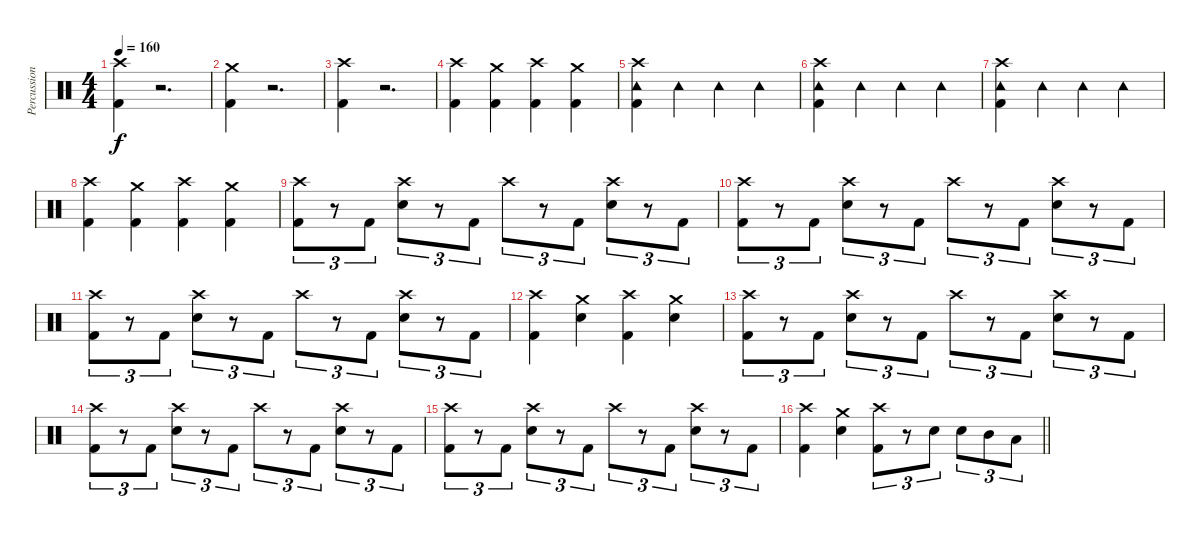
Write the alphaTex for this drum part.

\track ("Percussion" "Percussion") {instrument percussion}
\staff {score}
\articulation defaults
\ts (4 4)
\tempo 160
\clef neutral
\ks c
("Crash high (hit)" "Kick (hit) 2").4{dy f} r.2{d} |
("Crash medium (hit)" "Kick (hit) 2").4 r.2{d} |
("Crash high (hit)" "Kick (hit) 2").4 r.2{d} |
("Crash high (hit)" "Kick (hit) 2").4 ("Crash medium (hit)" "Kick (hit) 2").4 ("Crash high (hit)" "Kick (hit) 2").4 ("Crash medium (hit)" "Kick (hit) 2").4 |
("Crash high (hit)" "Tambourine (hit)" "Kick (hit) 2").4 "Tambourine (hit)".4 "Tambourine (hit)".4 "Tambourine (hit)".4 |
("Crash high (hit)" "Tambourine (hit)" "Kick (hit) 2").4 "Tambourine (hit)".4 "Tambourine (hit)".4 "Tambourine (hit)".4 |
("Crash high (hit)" "Tambourine (hit)" "Kick (hit) 2").4 "Tambourine (hit)".4 "Tambourine (hit)".4 "Tambourine (hit)".4 |
("Crash high (hit)" "Kick (hit) 2").4 ("Crash medium (hit)" "Kick (hit) 2").4 ("Crash high (hit)" "Kick (hit) 2").4 ("Crash medium (hit)" "Kick (hit) 2").4 |
("Crash high (hit)" "Kick (hit) 2").8{tu (3 2)} r.8{tu (3 2)} "Kick (hit) 2".8{tu (3 2)} ("Crash high (hit)" "Electric Snare (hit)").8{tu (3 2)} r.8{tu (3 2)} "Kick (hit) 2".8{tu (3 2)} "Crash high (hit)".8{tu (3 2)} r.8{tu (3 2)} "Kick (hit) 2".8{tu (3 2)} ("Crash high (hit)" "Electric Snare (hit)").8{tu (3 2)} r.8{tu (3 2)} "Kick (hit) 2".8{tu (3 2)} |
("Crash high (hit)" "Kick (hit) 2").8{tu (3 2)} r.8{tu (3 2)} "Kick (hit) 2".8{tu (3 2)} ("Crash high (hit)" "Electric Snare (hit)").8{tu (3 2)} r.8{tu (3 2)} "Kick (hit) 2".8{tu (3 2)} "Crash high (hit)".8{tu (3 2)} r.8{tu (3 2)} "Kick (hit) 2".8{tu (3 2)} ("Crash high (hit)" "Electric Snare (hit)").8{tu (3 2)} r.8{tu (3 2)} "Kick (hit) 2".8{tu (3 2)} |
("Crash high (hit)" "Kick (hit) 2").8{tu (3 2)} r.8{tu (3 2)} "Kick (hit) 2".8{tu (3 2)} ("Crash high (hit)" "Electric Snare (hit)").8{tu (3 2)} r.8{tu (3 2)} "Kick (hit) 2".8{tu (3 2)} "Crash high (hit)".8{tu (3 2)} r.8{tu (3 2)} "Kick (hit) 2".8{tu (3 2)} ("Crash high (hit)" "Electric Snare (hit)").8{tu (3 2)} r.8{tu (3 2)} "Kick (hit) 2".8{tu (3 2)} |
("Crash high (hit)" "Kick (hit) 2").4 ("Crash medium (hit)" "Electric Snare (hit)").4 ("Crash high (hit)" "Kick (hit) 2").4 ("Crash medium (hit)" "Electric Snare (hit)").4 |
("Crash high (hit)" "Kick (hit) 2").8{tu (3 2)} r.8{tu (3 2)} "Kick (hit) 2".8{tu (3 2)} ("Crash high (hit)" "Electric Snare (hit)").8{tu (3 2)} r.8{tu (3 2)} "Kick (hit) 2".8{tu (3 2)} "Crash high (hit)".8{tu (3 2)} r.8{tu (3 2)} "Kick (hit) 2".8{tu (3 2)} ("Crash high (hit)" "Electric Snare (hit)").8{tu (3 2)} r.8{tu (3 2)} "Kick (hit) 2".8{tu (3 2)} |
("Crash high (hit)" "Kick (hit) 2").8{tu (3 2)} r.8{tu (3 2)} "Kick (hit) 2".8{tu (3 2)} ("Crash high (hit)" "Electric Snare (hit)").8{tu (3 2)} r.8{tu (3 2)} "Kick (hit) 2".8{tu (3 2)} "Crash high (hit)".8{tu (3 2)} r.8{tu (3 2)} "Kick (hit) 2".8{tu (3 2)} ("Crash high (hit)" "Electric Snare (hit)").8{tu (3 2)} r.8{tu (3 2)} "Kick (hit) 2".8{tu (3 2)} |
("Crash high (hit)" "Kick (hit) 2").8{tu (3 2)} r.8{tu (3 2)} "Kick (hit) 2".8{tu (3 2)} ("Crash high (hit)" "Electric Snare (hit)").8{tu (3 2)} r.8{tu (3 2)} "Kick (hit) 2".8{tu (3 2)} "Crash high (hit)".8{tu (3 2)} r.8{tu (3 2)} "Kick (hit) 2".8{tu (3 2)} ("Crash high (hit)" "Electric Snare (hit)").8{tu (3 2)} r.8{tu (3 2)} "Kick (hit) 2".8{tu (3 2)} |
\barLineRight lightlight
("Crash high (hit)" "Kick (hit) 2").4 ("Crash medium (hit)" "Electric Snare (hit)").4 ("Crash high (hit)" "Kick (hit) 2").8{tu (3 2)} r.8{tu (3 2)} "Electric Snare (hit)".8{tu (3 2)} "Electric Snare (hit)".8{tu (3 2)} "Mid Tom (hit)".8{tu (3 2)} "Low Tom (hit)".8{tu (3 2)}
